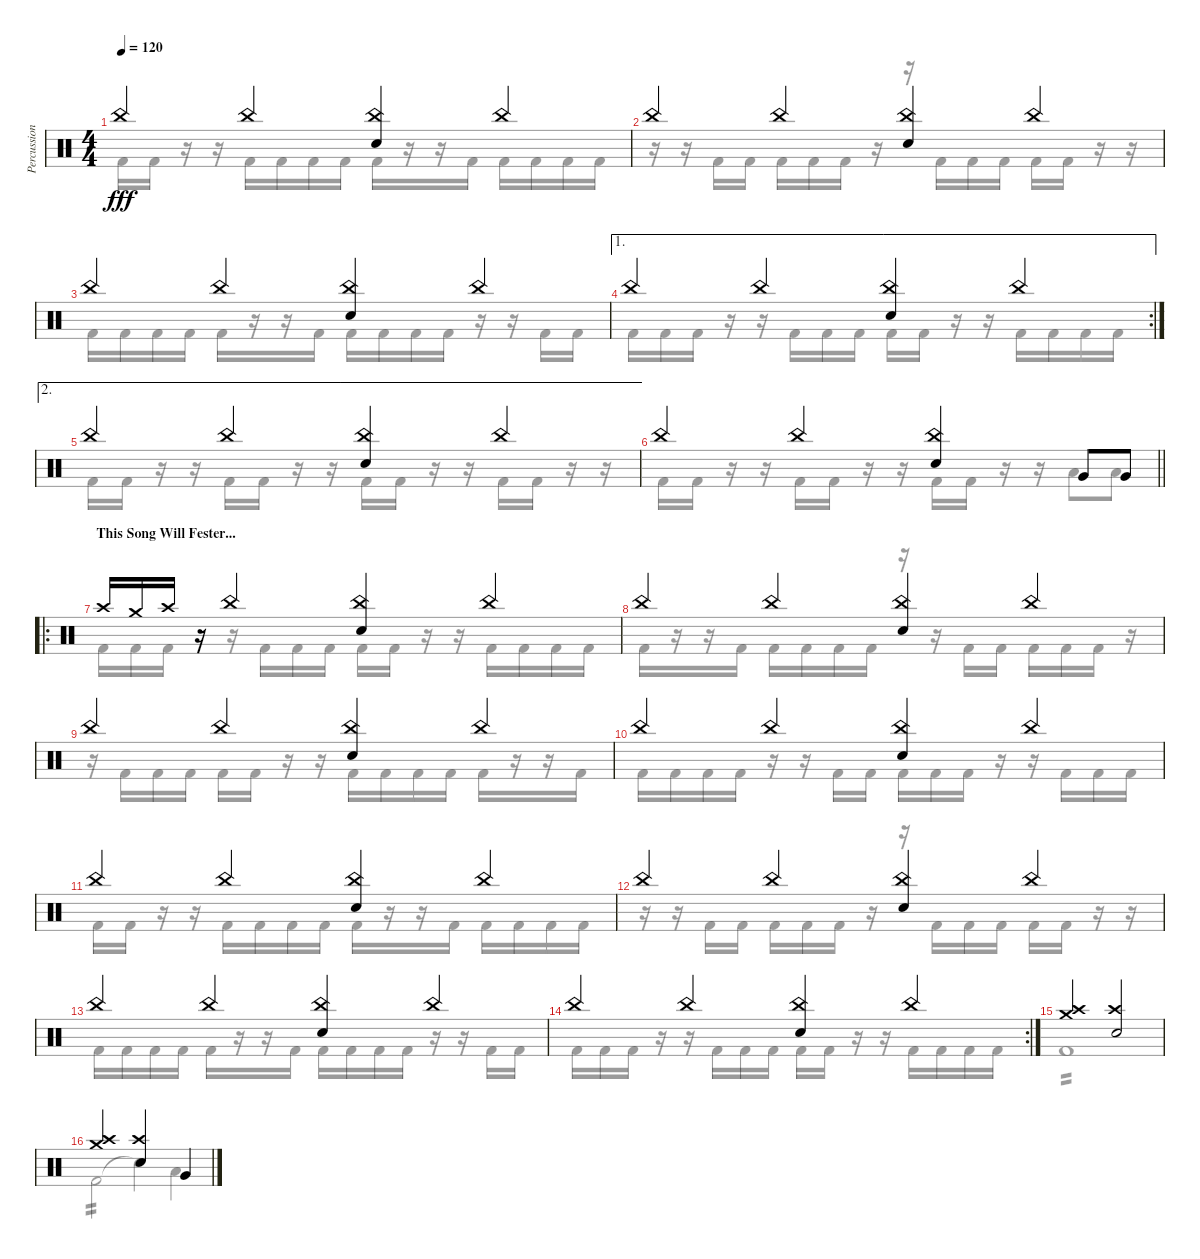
\track ("Percussion" "Percussion") {instrument percussion}
\staff {score}
\articulation defaults
\voice
\ts (4 4)
\tempo 120
\clef neutral
\ks c "China (hit)".4{dy fff} "China (hit)".4
("China (hit)" "Electric Snare (hit)").4 "China (hit)".4 |
"China (hit)".4 "China (hit)".4 ("China (hit)" "Electric Snare (hit)").4 "China (hit)".4 |
"China (hit)".4 "China (hit)".4 ("China (hit)" "Electric Snare (hit)").4 "China (hit)".4 |
\ae 1
\rc 2 "China (hit)".4 "China (hit)".4
("China (hit)" "Electric Snare (hit)").4 "China (hit)".4 |
\ae 2 "China (hit)".4 "China (hit)".4
("China (hit)" "Electric Snare (hit)").4 "China (hit)".4 |
\barLineRight lightlight "China (hit)".4 "China (hit)".4
("China (hit)" "Electric Snare (hit)").4 "Very Low Tom (hit)".8 "Very Low Tom (hit)".8 |
\ro
\section ("" "This Song Will Fester...")
"Crash high (hit)".16 "Crash medium (hit)".16 "Crash high (hit)".16 r.16 "China (hit)".4 ("China (hit)" "Electric Snare (hit)").4 "China (hit)".4 |
"China (hit)".4 "China (hit)".4 ("China (hit)" "Electric Snare (hit)").4 "China (hit)".4 |
"China (hit)".4 "China (hit)".4 ("China (hit)" "Electric Snare (hit)").4 "China (hit)".4 |
"China (hit)".4 "China (hit)".4 ("China (hit)" "Electric Snare (hit)").4 "China (hit)".4 |
"China (hit)".4 "China (hit)".4 ("China (hit)" "Electric Snare (hit)").4 "China (hit)".4 |
"China (hit)".4 "China (hit)".4 ("China (hit)" "Electric Snare (hit)").4 "China (hit)".4 |
"China (hit)".4 "China (hit)".4 ("China (hit)" "Electric Snare (hit)").4 "China (hit)".4 |
\rc 2 "China (hit)".4 "China (hit)".4
("China (hit)" "Electric Snare (hit)").4 "China (hit)".4 |
("Crash high (hit)" "Crash medium (hit)").2 ("Crash high (hit)" "Snare (hit) 2").2 |
("Crash high (hit)" "Crash medium (hit)").2 ("Crash high (hit)" "Snare (hit) 2").4 "Very Low Tom (hit)".4
\voice
\clef neutral
\ottava regular
\simile none
\ks c "Kick (hit) 2".16{dy fff} "Kick (hit) 2".16
r.16 r.16 "Kick (hit) 2".16 "Kick (hit) 2".16 "Kick (hit) 2".16 "Kick (hit) 2".16 "Kick (hit) 2".16 r.16 r.16 "Kick (hit) 2".16 "Kick (hit) 2".16 "Kick (hit) 2".16 "Kick (hit) 2".16 "Kick (hit) 2".16 |
r.16 r.16 "Kick (hit) 2".16 "Kick (hit) 2".16 "Kick (hit) 2".16 "Kick (hit) 2".16 "Kick (hit) 2".16 r.16 r.16 "Kick (hit) 2".16 "Kick (hit) 2".16 "Kick (hit) 2".16 "Kick (hit) 2".16 "Kick (hit) 2".16 r.16 r.16 |
"Kick (hit) 2".16 "Kick (hit) 2".16 "Kick (hit) 2".16 "Kick (hit) 2".16 "Kick (hit) 2".16 r.16 r.16 "Kick (hit) 2".16 "Kick (hit) 2".16 "Kick (hit) 2".16 "Kick (hit) 2".16 "Kick (hit) 2".16 r.16 r.16 "Kick (hit) 2".16 "Kick (hit) 2".16 |
"Kick (hit) 2".16 "Kick (hit) 2".16 "Kick (hit) 2".16 r.16 r.16 "Kick (hit) 2".16 "Kick (hit) 2".16 "Kick (hit) 2".16 "Kick (hit) 2".16 "Kick (hit) 2".16 r.16 r.16 "Kick (hit) 2".16 "Kick (hit) 2".16 "Kick (hit) 2".16 "Kick (hit) 2".16 |
"Kick (hit) 2".16 "Kick (hit) 2".16 r.16 r.16 "Kick (hit) 2".16 "Kick (hit) 2".16 r.16 r.16 "Kick (hit) 2".16 "Kick (hit) 2".16 r.16 r.16 "Kick (hit) 2".16 "Kick (hit) 2".16 r.16 r.16 |
\barLineRight lightlight "Kick (hit) 2".16 "Kick (hit) 2".16
r.16 r.16 "Kick (hit) 2".16 "Kick (hit) 2".16 r.16 r.16 "Kick (hit) 2".16 "Kick (hit) 2".16 r.16 r.16 "Low Floor Tom (hit)".8 "Low Floor Tom (hit)".8 |
"Kick (hit) 2".16 "Kick (hit) 2".16 "Kick (hit) 2".16 r.16 r.16 "Kick (hit) 2".16 "Kick (hit) 2".16 "Kick (hit) 2".16 "Kick (hit) 2".16 "Kick (hit) 2".16 r.16 r.16 "Kick (hit) 2".16 "Kick (hit) 2".16 "Kick (hit) 2".16 "Kick (hit) 2".16 |
"Kick (hit) 2".16 r.16 r.16 "Kick (hit) 2".16 "Kick (hit) 2".16 "Kick (hit) 2".16 "Kick (hit) 2".16 "Kick (hit) 2".16 r.16 r.16 "Kick (hit) 2".16 "Kick (hit) 2".16 "Kick (hit) 2".16 "Kick (hit) 2".16 "Kick (hit) 2".16 r.16 |
r.16 "Kick (hit) 2".16 "Kick (hit) 2".16 "Kick (hit) 2".16 "Kick (hit) 2".16 "Kick (hit) 2".16 r.16 r.16 "Kick (hit) 2".16 "Kick (hit) 2".16 "Kick (hit) 2".16 "Kick (hit) 2".16 "Kick (hit) 2".16 r.16 r.16 "Kick (hit) 2".16 |
"Kick (hit) 2".16 "Kick (hit) 2".16 "Kick (hit) 2".16 "Kick (hit) 2".16 r.16 r.16 "Kick (hit) 2".16 "Kick (hit) 2".16 "Kick (hit) 2".16 "Kick (hit) 2".16 "Kick (hit) 2".16 r.16 r.16 "Kick (hit) 2".16 "Kick (hit) 2".16 "Kick (hit) 2".16 |
"Kick (hit) 2".16 "Kick (hit) 2".16 r.16 r.16 "Kick (hit) 2".16 "Kick (hit) 2".16 "Kick (hit) 2".16 "Kick (hit) 2".16 "Kick (hit) 2".16 r.16 r.16 "Kick (hit) 2".16 "Kick (hit) 2".16 "Kick (hit) 2".16 "Kick (hit) 2".16 "Kick (hit) 2".16 |
r.16 r.16 "Kick (hit) 2".16 "Kick (hit) 2".16 "Kick (hit) 2".16 "Kick (hit) 2".16 "Kick (hit) 2".16 r.16 r.16 "Kick (hit) 2".16 "Kick (hit) 2".16 "Kick (hit) 2".16 "Kick (hit) 2".16 "Kick (hit) 2".16 r.16 r.16 |
"Kick (hit) 2".16 "Kick (hit) 2".16 "Kick (hit) 2".16 "Kick (hit) 2".16 "Kick (hit) 2".16 r.16 r.16 "Kick (hit) 2".16 "Kick (hit) 2".16 "Kick (hit) 2".16 "Kick (hit) 2".16 "Kick (hit) 2".16 r.16 r.16 "Kick (hit) 2".16 "Kick (hit) 2".16 |
"Kick (hit) 2".16 "Kick (hit) 2".16 "Kick (hit) 2".16 r.16 r.16 "Kick (hit) 2".16 "Kick (hit) 2".16 "Kick (hit) 2".16 "Kick (hit) 2".16 "Kick (hit) 2".16 r.16 r.16 "Kick (hit) 2".16 "Kick (hit) 2".16 "Kick (hit) 2".16 "Kick (hit) 2".16 |
"Kick (hit) 2".1{tp 2} |
"Kick (hit) 2".2{tp 2} "Snare (hit)"{t}.4 "Low Floor Tom (hit)".4
